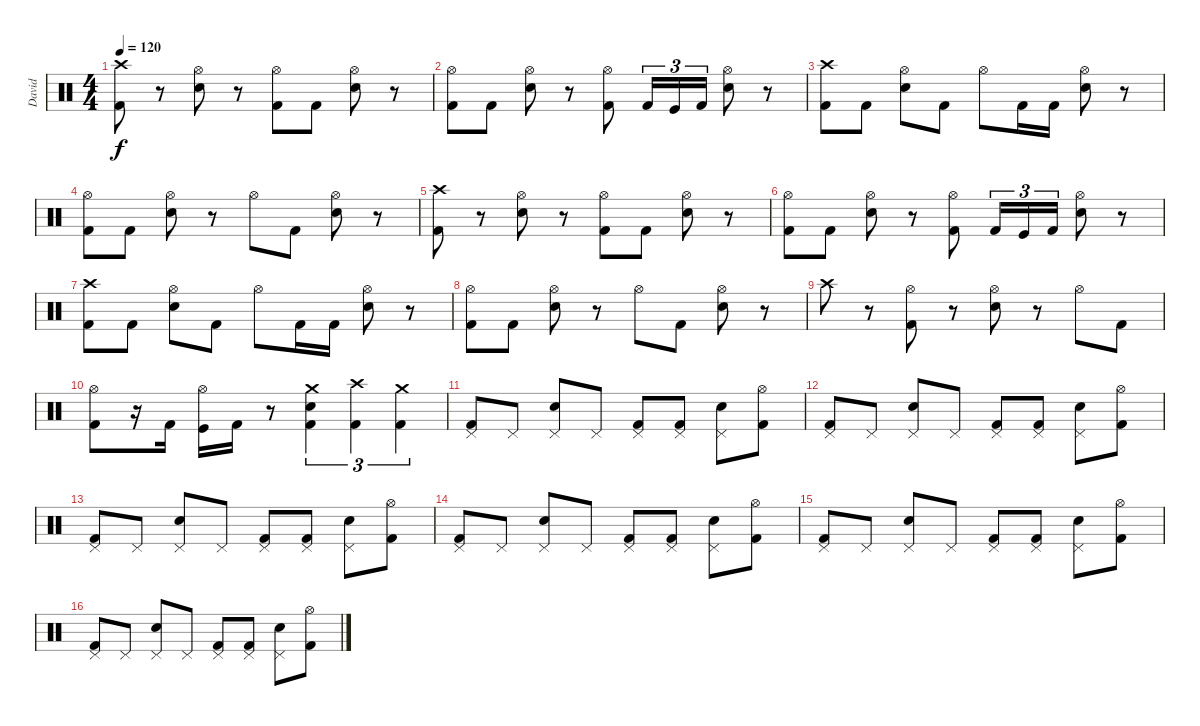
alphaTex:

\track ("David" "David") {instrument percussion}
\staff {score}
\articulation defaults
\ts (4 4)
\tempo 120
\clef neutral
\ks c
("Crash high (hit)" "Kick (hit) 2").8{dy f} r.8 ("Hi-Hat (open)" "Snare (hit) 2").8 r.8 ("Hi-Hat (open)" "Kick (hit) 2").8 "Kick (hit) 2".8 ("Hi-Hat (open)" "Snare (hit) 2").8 r.8 |
("Hi-Hat (open)" "Kick (hit) 2").8 "Kick (hit) 2".8 ("Hi-Hat (open)" "Snare (hit) 2").8 r.8 ("Hi-Hat (open)" "Kick (hit) 2").8 "Kick (hit) 2".16{tu (3 2)} "Kick (hit)".16{tu (3 2)} "Kick (hit) 2".16{tu (3 2)} ("Hi-Hat (open)" "Snare (hit) 2").8 r.8 |
("Crash high (hit)" "Kick (hit) 2").8 "Kick (hit) 2".8 ("Hi-Hat (open)" "Snare (hit) 2").8 "Kick (hit) 2".8 "Hi-Hat (open)".8 "Kick (hit) 2".16 "Kick (hit) 2".16 ("Hi-Hat (open)" "Snare (hit) 2").8 r.8 |
("Hi-Hat (open)" "Kick (hit) 2").8 "Kick (hit) 2".8 ("Hi-Hat (open)" "Snare (hit) 2").8 r.8 "Hi-Hat (open)".8 "Kick (hit) 2".8 ("Hi-Hat (open)" "Snare (hit) 2").8 r.8 |
("Crash high (hit)" "Kick (hit) 2").8 r.8 ("Hi-Hat (open)" "Snare (hit) 2").8 r.8 ("Hi-Hat (open)" "Kick (hit) 2").8 "Kick (hit) 2".8 ("Hi-Hat (open)" "Snare (hit) 2").8 r.8 |
("Hi-Hat (open)" "Kick (hit) 2").8 "Kick (hit) 2".8 ("Hi-Hat (open)" "Snare (hit) 2").8 r.8 ("Hi-Hat (open)" "Kick (hit) 2").8 "Kick (hit) 2".16{tu (3 2)} "Kick (hit)".16{tu (3 2)} "Kick (hit) 2".16{tu (3 2)} ("Hi-Hat (open)" "Snare (hit) 2").8 r.8 |
("Crash high (hit)" "Kick (hit) 2").8 "Kick (hit) 2".8 ("Hi-Hat (open)" "Snare (hit) 2").8 "Kick (hit) 2".8 "Hi-Hat (open)".8 "Kick (hit) 2".16 "Kick (hit) 2".16 ("Hi-Hat (open)" "Snare (hit) 2").8 r.8 |
("Hi-Hat (open)" "Kick (hit) 2").8 "Kick (hit) 2".8 ("Hi-Hat (open)" "Snare (hit) 2").8 r.8 "Hi-Hat (open)".8 "Kick (hit) 2".8 ("Hi-Hat (open)" "Snare (hit) 2").8 r.8 |
"Crash high (hit)".8 r.8 ("Hi-Hat (open)" "Kick (hit) 2").8 r.8 ("Hi-Hat (open)" "Snare (hit) 2").8 r.8 "Hi-Hat (open)".8 "Kick (hit) 2".8 |
("Hi-Hat (open)" "Kick (hit) 2").8 r.16 "Kick (hit) 2".16 ("Hi-Hat (open)" "Kick (hit)").16 "Kick (hit) 2".16 r.8 ("Crash medium (hit)" "Snare (hit) 2" "Kick (hit) 2").4{tu (3 2)} ("Crash high (hit)" "Kick (hit) 2").4{tu (3 2)} ("Crash medium (hit)" "Kick (hit) 2").4{tu (3 2)} |
("Pedal Hi-Hat (hit)" "Kick (hit) 2").8 "Pedal Hi-Hat (hit)".8 ("Pedal Hi-Hat (hit)" "Snare (hit) 2").8 "Pedal Hi-Hat (hit)".8 ("Pedal Hi-Hat (hit)" "Kick (hit) 2").8 ("Pedal Hi-Hat (hit)" "Kick (hit) 2").8 ("Pedal Hi-Hat (hit)" "Snare (hit) 2").8 ("Hi-Hat (open)" "Kick (hit) 2").8 |
("Pedal Hi-Hat (hit)" "Kick (hit) 2").8 "Pedal Hi-Hat (hit)".8 ("Pedal Hi-Hat (hit)" "Snare (hit) 2").8 "Pedal Hi-Hat (hit)".8 ("Pedal Hi-Hat (hit)" "Kick (hit) 2").8 ("Pedal Hi-Hat (hit)" "Kick (hit) 2").8 ("Pedal Hi-Hat (hit)" "Snare (hit) 2").8 ("Hi-Hat (open)" "Kick (hit) 2").8 |
("Pedal Hi-Hat (hit)" "Kick (hit) 2").8 "Pedal Hi-Hat (hit)".8 ("Pedal Hi-Hat (hit)" "Snare (hit) 2").8 "Pedal Hi-Hat (hit)".8 ("Pedal Hi-Hat (hit)" "Kick (hit) 2").8 ("Pedal Hi-Hat (hit)" "Kick (hit) 2").8 ("Pedal Hi-Hat (hit)" "Snare (hit) 2").8 ("Hi-Hat (open)" "Kick (hit) 2").8 |
("Pedal Hi-Hat (hit)" "Kick (hit) 2").8 "Pedal Hi-Hat (hit)".8 ("Pedal Hi-Hat (hit)" "Snare (hit) 2").8 "Pedal Hi-Hat (hit)".8 ("Pedal Hi-Hat (hit)" "Kick (hit) 2").8 ("Pedal Hi-Hat (hit)" "Kick (hit) 2").8 ("Pedal Hi-Hat (hit)" "Snare (hit) 2").8 ("Hi-Hat (open)" "Kick (hit) 2").8 |
("Pedal Hi-Hat (hit)" "Kick (hit) 2").8 "Pedal Hi-Hat (hit)".8 ("Pedal Hi-Hat (hit)" "Snare (hit) 2").8 "Pedal Hi-Hat (hit)".8 ("Pedal Hi-Hat (hit)" "Kick (hit) 2").8 ("Pedal Hi-Hat (hit)" "Kick (hit) 2").8 ("Pedal Hi-Hat (hit)" "Snare (hit) 2").8 ("Hi-Hat (open)" "Kick (hit) 2").8 |
("Pedal Hi-Hat (hit)" "Kick (hit) 2").8 "Pedal Hi-Hat (hit)".8 ("Pedal Hi-Hat (hit)" "Snare (hit) 2").8 "Pedal Hi-Hat (hit)".8 ("Pedal Hi-Hat (hit)" "Kick (hit) 2").8 ("Pedal Hi-Hat (hit)" "Kick (hit) 2").8 ("Pedal Hi-Hat (hit)" "Snare (hit) 2").8 ("Hi-Hat (open)" "Kick (hit) 2").8
